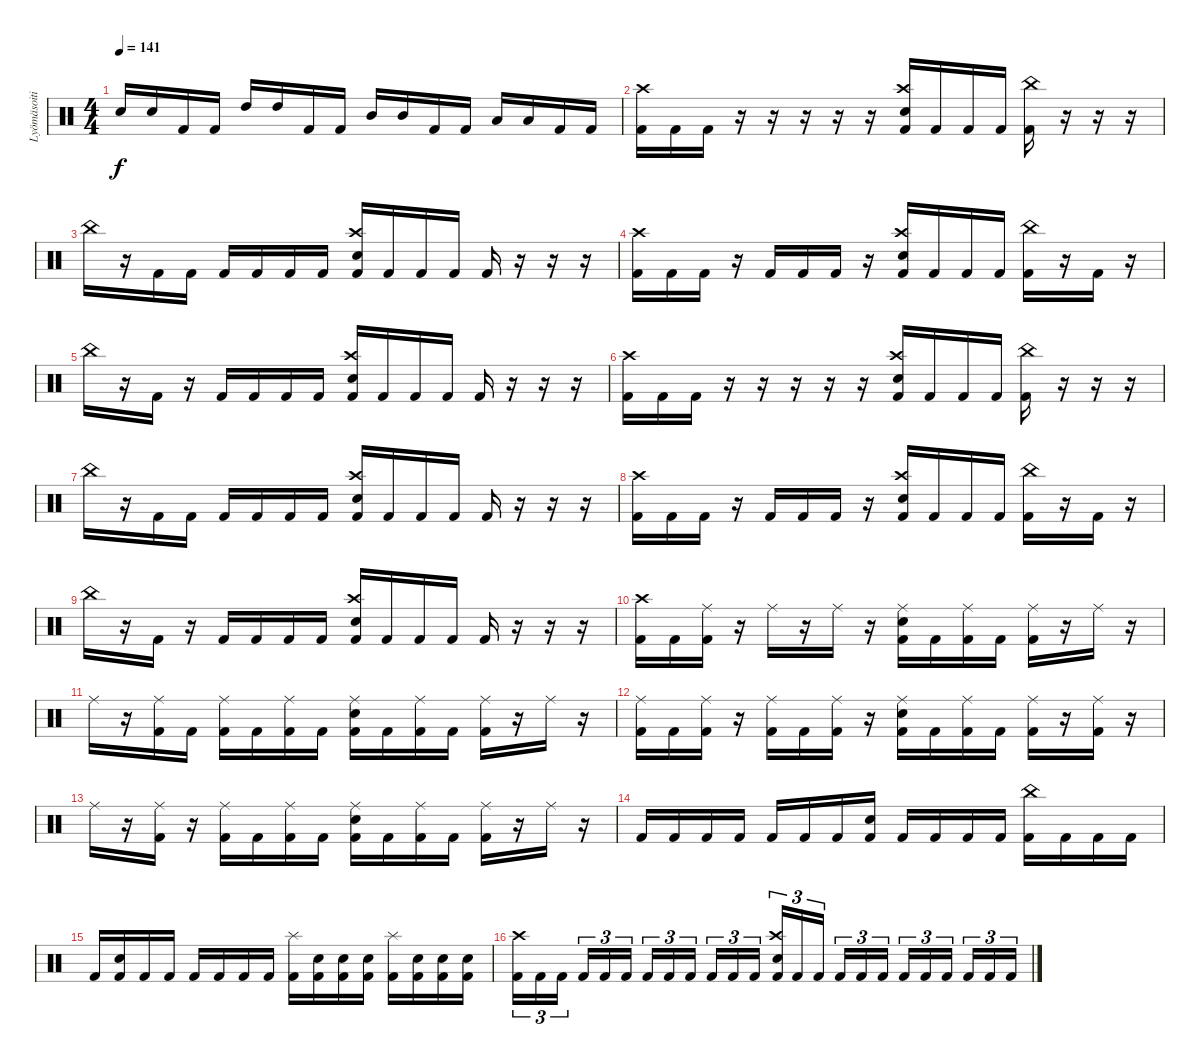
\track ("Lyömäsoitin" "Lyömäsoiti") {instrument percussion}
\staff {score}
\articulation defaults
\ts (4 4)
\tempo 141
\clef neutral
\ks c "Snare (hit) 2".16{dy f} "Snare (hit) 2".16 "Kick (hit) 2".16 "Kick (hit) 2".16 "High Tom (hit)".16 "High Tom (hit)".16 "Kick (hit) 2".16 "Kick (hit) 2".16 "Mid Tom (hit)".16 "Mid Tom (hit)".16 "Kick (hit) 2".16 "Kick (hit) 2".16 "Low Tom (hit)".16 "Low Tom (hit)".16 "Kick (hit) 2".16 "Kick (hit) 2".16
|
("Crash high (hit)" "Kick (hit) 2").16 "Kick (hit) 2".16 "Kick (hit) 2".16 r.16 r.16 r.16 r.16 r.16 ("Crash high (hit)" "Electric Snare (hit)" "Kick (hit) 2").16 "Kick (hit) 2".16 "Kick (hit) 2".16 "Kick (hit) 2".16 ("China (hit)" "Kick (hit) 2").16 r.16 r.16 r.16 |
"China (hit)".16 r.16 "Kick (hit) 2".16 "Kick (hit) 2".16 "Kick (hit) 2".16 "Kick (hit) 2".16 "Kick (hit) 2".16 "Kick (hit) 2".16 ("Crash high (hit)" "Electric Snare (hit)" "Kick (hit) 2").16 "Kick (hit) 2".16 "Kick (hit) 2".16 "Kick (hit) 2".16 "Kick (hit) 2".16 r.16 r.16 r.16 |
("Crash high (hit)" "Kick (hit) 2").16 "Kick (hit) 2".16 "Kick (hit) 2".16 r.16 "Kick (hit) 2".16 "Kick (hit) 2".16 "Kick (hit) 2".16 r.16 ("Crash high (hit)" "Electric Snare (hit)" "Kick (hit) 2").16 "Kick (hit) 2".16 "Kick (hit) 2".16 "Kick (hit) 2".16 ("China (hit)" "Kick (hit) 2").16 r.16 "Kick (hit) 2".16 r.16 |
"China (hit)".16 r.16 "Kick (hit) 2".16 r.16 "Kick (hit) 2".16 "Kick (hit) 2".16 "Kick (hit) 2".16 "Kick (hit) 2".16 ("Crash high (hit)" "Electric Snare (hit)" "Kick (hit) 2").16 "Kick (hit) 2".16 "Kick (hit) 2".16 "Kick (hit) 2".16 "Kick (hit) 2".16 r.16 r.16 r.16 |
("Crash high (hit)" "Kick (hit) 2").16 "Kick (hit) 2".16 "Kick (hit) 2".16 r.16 r.16 r.16 r.16 r.16 ("Crash high (hit)" "Electric Snare (hit)" "Kick (hit) 2").16 "Kick (hit) 2".16 "Kick (hit) 2".16 "Kick (hit) 2".16 ("China (hit)" "Kick (hit) 2").16 r.16 r.16 r.16 |
"China (hit)".16 r.16 "Kick (hit) 2".16 "Kick (hit) 2".16 "Kick (hit) 2".16 "Kick (hit) 2".16 "Kick (hit) 2".16 "Kick (hit) 2".16 ("Crash high (hit)" "Electric Snare (hit)" "Kick (hit) 2").16 "Kick (hit) 2".16 "Kick (hit) 2".16 "Kick (hit) 2".16 "Kick (hit) 2".16 r.16 r.16 r.16 |
("Crash high (hit)" "Kick (hit) 2").16 "Kick (hit) 2".16 "Kick (hit) 2".16 r.16 "Kick (hit) 2".16 "Kick (hit) 2".16 "Kick (hit) 2".16 r.16 ("Crash high (hit)" "Electric Snare (hit)" "Kick (hit) 2").16 "Kick (hit) 2".16 "Kick (hit) 2".16 "Kick (hit) 2".16 ("China (hit)" "Kick (hit) 2").16 r.16 "Kick (hit) 2".16 r.16 |
"China (hit)".16 r.16 "Kick (hit) 2".16 r.16 "Kick (hit) 2".16 "Kick (hit) 2".16 "Kick (hit) 2".16 "Kick (hit) 2".16 ("Crash high (hit)" "Electric Snare (hit)" "Kick (hit) 2").16 "Kick (hit) 2".16 "Kick (hit) 2".16 "Kick (hit) 2".16 "Kick (hit) 2".16 r.16 r.16 r.16 |
("Crash high (hit)" "Kick (hit) 2").16 "Kick (hit) 2".16 ("Ride (middle)" "Kick (hit) 2").16 r.16 "Ride (middle)".16 r.16 "Ride (middle)".16 r.16 ("Ride (middle)" "Electric Snare (hit)" "Kick (hit) 2").16 "Kick (hit) 2".16 ("Ride (middle)" "Kick (hit) 2").16 "Kick (hit) 2".16 ("Ride (middle)" "Kick (hit) 2").16 r.16 "Ride (middle)".16 r.16 |
"Ride (middle)".16 r.16 ("Ride (middle)" "Kick (hit) 2").16 "Kick (hit) 2".16 ("Ride (middle)" "Kick (hit) 2").16 "Kick (hit) 2".16 ("Ride (middle)" "Kick (hit) 2").16 "Kick (hit) 2".16 ("Ride (middle)" "Electric Snare (hit)" "Kick (hit) 2").16 "Kick (hit) 2".16 ("Ride (middle)" "Kick (hit) 2").16 "Kick (hit) 2".16 ("Ride (middle)" "Kick (hit) 2").16 r.16 "Ride (middle)".16 r.16 |
("Ride (middle)" "Kick (hit) 2").16 "Kick (hit) 2".16 ("Ride (middle)" "Kick (hit) 2").16 r.16 ("Ride (middle)" "Kick (hit) 2").16 "Kick (hit) 2".16 ("Ride (middle)" "Kick (hit) 2").16 r.16 ("Ride (middle)" "Electric Snare (hit)" "Kick (hit) 2").16 "Kick (hit) 2".16 ("Ride (middle)" "Kick (hit) 2").16 "Kick (hit) 2".16 ("Ride (middle)" "Kick (hit) 2").16 r.16 ("Ride (middle)" "Kick (hit) 2").16 r.16 |
"Ride (middle)".16 r.16 ("Ride (middle)" "Kick (hit) 2").16 r.16 ("Ride (middle)" "Kick (hit) 2").16 "Kick (hit) 2".16 ("Ride (middle)" "Kick (hit) 2").16 "Kick (hit) 2".16 ("Ride (middle)" "Electric Snare (hit)" "Kick (hit) 2").16 "Kick (hit) 2".16 ("Ride (middle)" "Kick (hit) 2").16 "Kick (hit) 2".16 ("Ride (middle)" "Kick (hit) 2").16 r.16 "Ride (middle)".16 r.16 |
"Kick (hit) 2".16 "Kick (hit) 2".16 "Kick (hit) 2".16 "Kick (hit) 2".16 "Kick (hit) 2".16 "Kick (hit) 2".16 "Kick (hit) 2".16 ("Electric Snare (hit)" "Kick (hit) 2").16 "Kick (hit) 2".16 "Kick (hit) 2".16 "Kick (hit) 2".16 "Kick (hit) 2".16 ("China (hit)" "Kick (hit) 2").16 "Kick (hit) 2".16 "Kick (hit) 2".16 "Kick (hit) 2".16 |
"Kick (hit) 2".16 ("Electric Snare (hit)" "Kick (hit) 2").16 "Kick (hit) 2".16 "Kick (hit) 2".16 "Kick (hit) 2".16 "Kick (hit) 2".16 "Kick (hit) 2".16 "Kick (hit) 2".16 ("Splash (hit)" "Kick (hit) 2").16 ("Electric Snare (hit)" "Kick (hit) 2").16 ("Electric Snare (hit)" "Kick (hit) 2").16 ("Electric Snare (hit)" "Kick (hit) 2").16 ("Splash (hit)" "Kick (hit) 2").16 ("Electric Snare (hit)" "Kick (hit) 2").16 ("Electric Snare (hit)" "Kick (hit) 2").16 ("Electric Snare (hit)" "Kick (hit) 2").16 |
("Crash high (hit)" "Kick (hit) 2").16{tu (3 2)} "Kick (hit) 2".16{tu (3 2)} "Kick (hit) 2".16{tu (3 2)} "Kick (hit) 2".16{tu (3 2)} "Kick (hit) 2".16{tu (3 2)} "Kick (hit) 2".16{tu (3 2)} "Kick (hit) 2".16{tu (3 2)} "Kick (hit) 2".16{tu (3 2)} "Kick (hit) 2".16{tu (3 2)} "Kick (hit) 2".16{tu (3 2)} "Kick (hit) 2".16{tu (3 2)} "Kick (hit) 2".16{tu (3 2)} ("Crash high (hit)" "Electric Snare (hit)" "Kick (hit) 2").16{tu (3 2)} "Kick (hit) 2".16{tu (3 2)} "Kick (hit) 2".16{tu (3 2)} "Kick (hit) 2".16{tu (3 2)} "Kick (hit) 2".16{tu (3 2)} "Kick (hit) 2".16{tu (3 2)} "Kick (hit) 2".16{tu (3 2)} "Kick (hit) 2".16{tu (3 2)} "Kick (hit) 2".16{tu (3 2)} "Kick (hit) 2".16{tu (3 2)} "Kick (hit) 2".16{tu (3 2)} "Kick (hit) 2".16{tu (3 2)}
